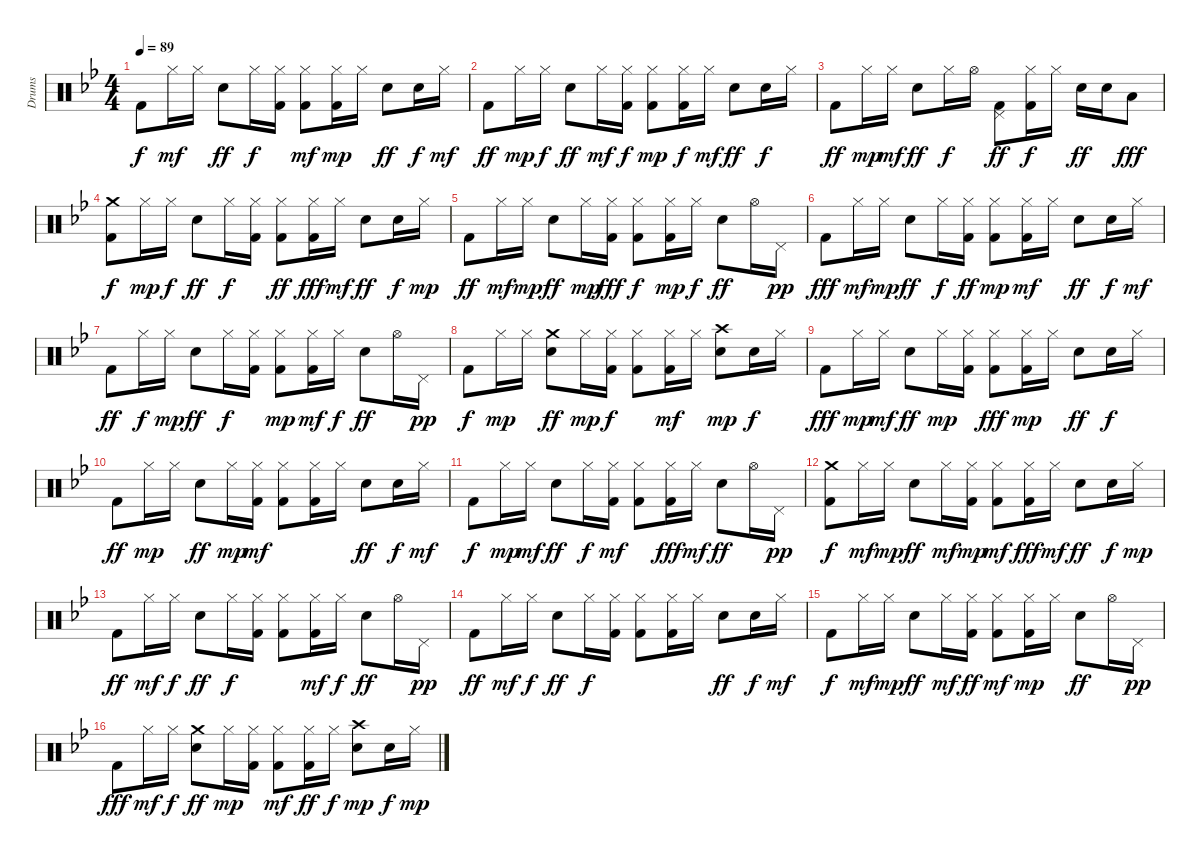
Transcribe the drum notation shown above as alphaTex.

\track ("Drums" "Drums") {instrument percussion}
\staff {score}
\articulation defaults
\ts (4 4)
\tempo 89
\clef neutral
\ks bb "Kick (hit) 2".8{dy f} "Hi-Hat (closed)".16{dy mf} "Hi-Hat (closed)".16 "Electric Snare (hit)".8{dy ff} "Hi-Hat (closed)".16{dy f}
("Kick (hit) 2" "Hi-Hat (closed)").16 ("Kick (hit) 2" "Hi-Hat (closed)").8{dy mf} ("Kick (hit) 2" "Hi-Hat (closed)").16{dy mp} "Hi-Hat (closed)".16 "Electric Snare (hit)".8{dy ff} "Hand Clap (hit)".16{dy f} "Hi-Hat (closed)".16{dy mf} |
"Kick (hit) 2".8{dy ff} "Hi-Hat (closed)".16{dy mp} "Hi-Hat (closed)".16{dy f} "Electric Snare (hit)".8{dy ff} "Hi-Hat (closed)".16{dy mf} ("Kick (hit) 2" "Hi-Hat (closed)").16{dy f} ("Kick (hit) 2" "Hi-Hat (closed)").8{dy mp} ("Kick (hit) 2" "Hi-Hat (closed)").16{dy f} "Hi-Hat (closed)".16{dy mf} "Electric Snare (hit)".8{dy ff} "Hand Clap (hit)".16{dy f} "Hi-Hat (closed)".16 |
"Kick (hit) 2".8{dy ff} "Hi-Hat (closed)".16{dy mp} "Hi-Hat (closed)".16{dy mf} "Electric Snare (hit)".8{dy ff} "Hi-Hat (closed)".16{dy f} "Hi-Hat (open)".16 ("Kick (hit) 2" "Pedal Hi-Hat (hit)").8{dy ff} ("Kick (hit) 2" "Hi-Hat (closed)").16{dy f} "Hi-Hat (closed)".16 "Electric Snare (hit)".16{dy ff} "Electric Snare (hit)".16 "Low Tom (hit)".8{dy fff} |
("Kick (hit) 2" "Crash medium (hit)").8{dy f} "Hi-Hat (closed)".16{dy mp} "Hi-Hat (closed)".16{dy f} "Electric Snare (hit)".8{dy ff} "Hi-Hat (closed)".16{dy f} ("Kick (hit) 2" "Hi-Hat (closed)").16 ("Kick (hit) 2" "Hi-Hat (closed)").8{dy ff} ("Kick (hit) 2" "Hi-Hat (closed)").16{dy fff} "Hi-Hat (closed)".16{dy mf} "Electric Snare (hit)".8{dy ff} "Hand Clap (hit)".16{dy f} "Hi-Hat (closed)".16{dy mp} |
"Kick (hit) 2".8{dy ff} "Hi-Hat (closed)".16{dy mf} "Hi-Hat (closed)".16{dy mp} "Electric Snare (hit)".8{dy ff} "Hi-Hat (closed)".16{dy mp} ("Kick (hit) 2" "Hi-Hat (closed)").16{dy fff} ("Kick (hit) 2" "Hi-Hat (closed)").8{dy f} ("Kick (hit) 2" "Hi-Hat (closed)").16{dy mp} "Hi-Hat (closed)".16{dy f} "Electric Snare (hit)".8{dy ff} "Hi-Hat (open)".16 "Pedal Hi-Hat (hit)".16{dy pp} |
"Kick (hit) 2".8{dy fff} "Hi-Hat (closed)".16{dy mf} "Hi-Hat (closed)".16{dy mp} "Electric Snare (hit)".8{dy ff} "Hi-Hat (closed)".16{dy f} ("Kick (hit) 2" "Hi-Hat (closed)").16{dy ff} ("Kick (hit) 2" "Hi-Hat (closed)").8{dy mp} ("Kick (hit) 2" "Hi-Hat (closed)").16{dy mf} "Hi-Hat (closed)".16 "Electric Snare (hit)".8{dy ff} "Hand Clap (hit)".16{dy f} "Hi-Hat (closed)".16{dy mf} |
"Kick (hit) 2".8{dy ff} "Hi-Hat (closed)".16{dy f} "Hi-Hat (closed)".16{dy mp} "Electric Snare (hit)".8{dy ff} "Hi-Hat (closed)".16{dy f} ("Kick (hit) 2" "Hi-Hat (closed)").16 ("Kick (hit) 2" "Hi-Hat (closed)").8{dy mp} ("Kick (hit) 2" "Hi-Hat (closed)").16{dy mf} "Hi-Hat (closed)".16{dy f} "Electric Snare (hit)".8{dy ff} "Hi-Hat (open)".16 "Pedal Hi-Hat (hit)".16{dy pp} |
"Kick (hit) 2".8{dy f} "Hi-Hat (closed)".16{dy mp} "Hi-Hat (closed)".16 ("Electric Snare (hit)" "Crash medium (hit)").8{dy ff} "Hi-Hat (closed)".16{dy mp} ("Kick (hit) 2" "Hi-Hat (closed)").16{dy f} ("Kick (hit) 2" "Hi-Hat (closed)").8 ("Kick (hit) 2" "Hi-Hat (closed)").16{dy mf} "Hi-Hat (closed)".16 ("Electric Snare (hit)" "Crash high (hit)").8{dy mp} "Hand Clap (hit)".16{dy f} "Hi-Hat (closed)".16 |
"Kick (hit) 2".8{dy fff} "Hi-Hat (closed)".16{dy mp} "Hi-Hat (closed)".16{dy mf} "Electric Snare (hit)".8{dy ff} "Hi-Hat (closed)".16{dy mp} ("Kick (hit) 2" "Hi-Hat (closed)").16 ("Kick (hit) 2" "Hi-Hat (closed)").8{dy fff} ("Kick (hit) 2" "Hi-Hat (closed)").16{dy mp} "Hi-Hat (closed)".16 "Electric Snare (hit)".8{dy ff} "Hand Clap (hit)".16{dy f} "Hi-Hat (closed)".16 |
"Kick (hit) 2".8{dy ff} "Hi-Hat (closed)".16{dy mp} "Hi-Hat (closed)".16 "Electric Snare (hit)".8{dy ff} "Hi-Hat (closed)".16{dy mp} ("Kick (hit) 2" "Hi-Hat (closed)").16{dy mf} ("Kick (hit) 2" "Hi-Hat (closed)").8 ("Kick (hit) 2" "Hi-Hat (closed)").16 "Hi-Hat (closed)".16 "Electric Snare (hit)".8{dy ff} "Hand Clap (hit)".16{dy f} "Hi-Hat (closed)".16{dy mf} |
"Kick (hit) 2".8{dy f} "Hi-Hat (closed)".16{dy mp} "Hi-Hat (closed)".16{dy mf} "Electric Snare (hit)".8{dy ff} "Hi-Hat (closed)".16{dy f} ("Kick (hit) 2" "Hi-Hat (closed)").16{dy mf} ("Kick (hit) 2" "Hi-Hat (closed)").8 ("Kick (hit) 2" "Hi-Hat (closed)").16{dy fff} "Hi-Hat (closed)".16{dy mf} "Electric Snare (hit)".8{dy ff} "Hi-Hat (open)".16 "Pedal Hi-Hat (hit)".16{dy pp} |
("Kick (hit) 2" "Crash medium (hit)").8{dy f} "Hi-Hat (closed)".16{dy mf} "Hi-Hat (closed)".16{dy mp} "Electric Snare (hit)".8{dy ff} "Hi-Hat (closed)".16{dy mf} ("Kick (hit) 2" "Hi-Hat (closed)").16{dy mp} ("Kick (hit) 2" "Hi-Hat (closed)").8{dy mf} ("Kick (hit) 2" "Hi-Hat (closed)").16{dy fff} "Hi-Hat (closed)".16{dy mf} "Electric Snare (hit)".8{dy ff} "Hand Clap (hit)".16{dy f} "Hi-Hat (closed)".16{dy mp} |
"Kick (hit) 2".8{dy ff} "Hi-Hat (closed)".16{dy mf} "Hi-Hat (closed)".16{dy f} "Electric Snare (hit)".8{dy ff} "Hi-Hat (closed)".16{dy f} ("Kick (hit) 2" "Hi-Hat (closed)").16 ("Kick (hit) 2" "Hi-Hat (closed)").8 ("Kick (hit) 2" "Hi-Hat (closed)").16{dy mf} "Hi-Hat (closed)".16{dy f} "Electric Snare (hit)".8{dy ff} "Hi-Hat (open)".16 "Pedal Hi-Hat (hit)".16{dy pp} |
"Kick (hit) 2".8{dy ff} "Hi-Hat (closed)".16{dy mf} "Hi-Hat (closed)".16{dy f} "Electric Snare (hit)".8{dy ff} "Hi-Hat (closed)".16{dy f} ("Kick (hit) 2" "Hi-Hat (closed)").16 ("Kick (hit) 2" "Hi-Hat (closed)").8 ("Kick (hit) 2" "Hi-Hat (closed)").16 "Hi-Hat (closed)".16 "Electric Snare (hit)".8{dy ff} "Hand Clap (hit)".16{dy f} "Hi-Hat (closed)".16{dy mf} |
"Kick (hit) 2".8{dy f} "Hi-Hat (closed)".16{dy mf} "Hi-Hat (closed)".16{dy mp} "Electric Snare (hit)".8{dy ff} "Hi-Hat (closed)".16{dy mf} ("Kick (hit) 2" "Hi-Hat (closed)").16{dy ff} ("Kick (hit) 2" "Hi-Hat (closed)").8{dy mf} ("Kick (hit) 2" "Hi-Hat (closed)").16{dy mp} "Hi-Hat (closed)".16 "Electric Snare (hit)".8{dy ff} "Hi-Hat (open)".16 "Pedal Hi-Hat (hit)".16{dy pp} |
"Kick (hit) 2".8{dy fff} "Hi-Hat (closed)".16{dy mf} "Hi-Hat (closed)".16{dy f} ("Electric Snare (hit)" "Crash medium (hit)").8{dy ff} "Hi-Hat (closed)".16{dy mp} ("Kick (hit) 2" "Hi-Hat (closed)").16 ("Kick (hit) 2" "Hi-Hat (closed)").8{dy mf} ("Kick (hit) 2" "Hi-Hat (closed)").16{dy ff} "Hi-Hat (closed)".16{dy f} ("Electric Snare (hit)" "Crash high (hit)").8{dy mp} "Hand Clap (hit)".16{dy f} "Hi-Hat (closed)".16{dy mp}
